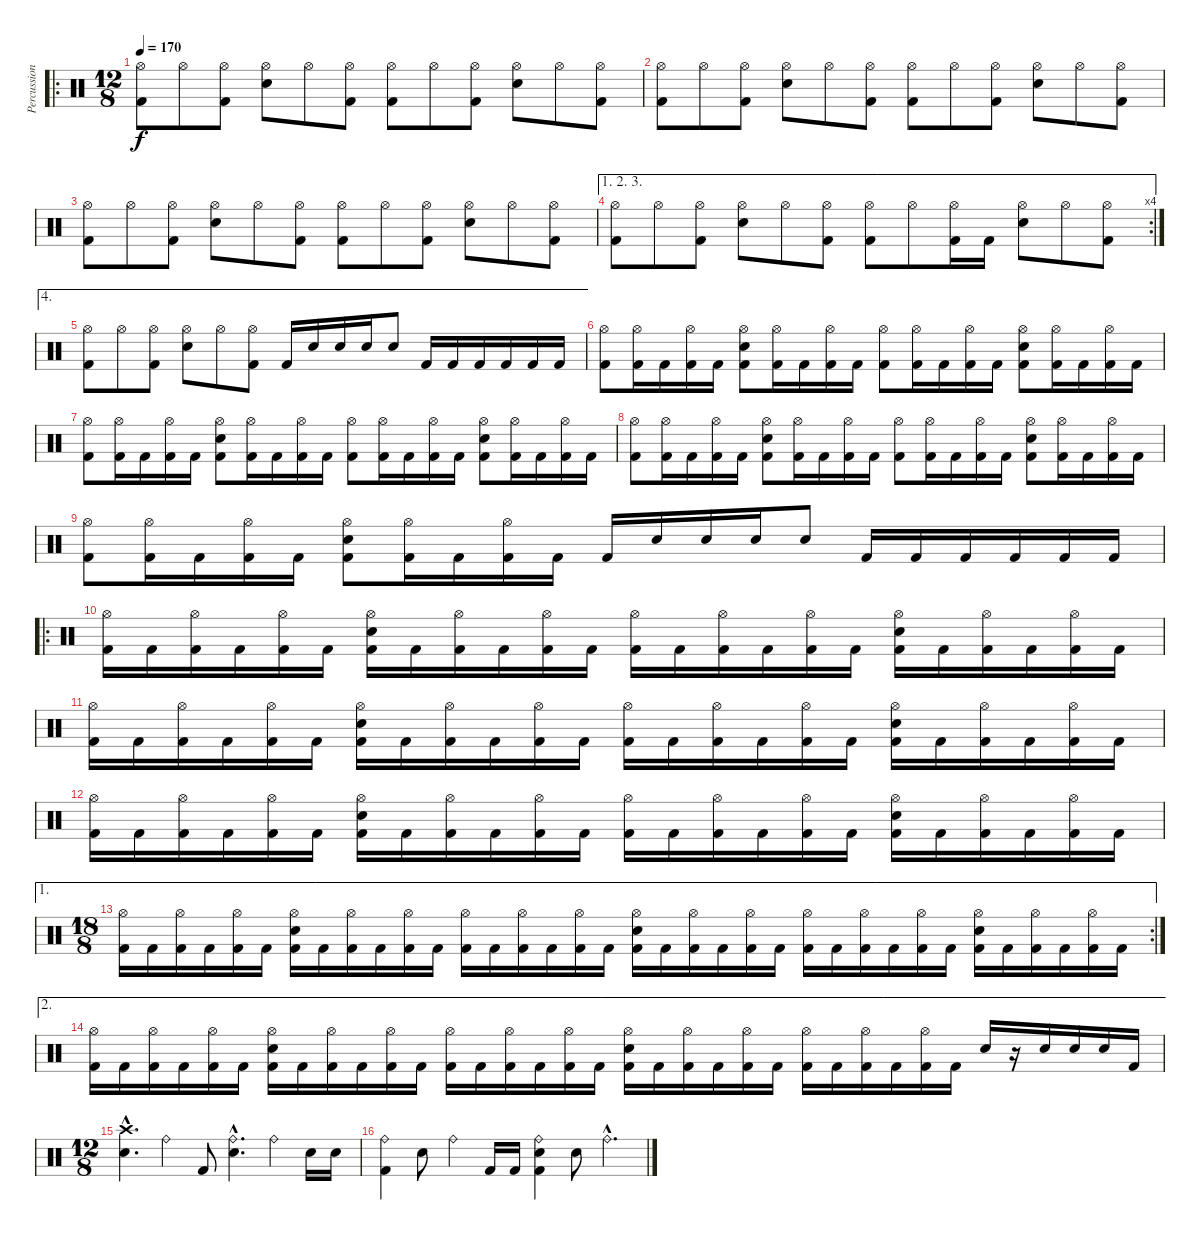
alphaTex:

\track ("Percussion" "Percussion") {instrument percussion}
\staff {score}
\articulation defaults
\ro
\ts (12 8)
\tempo 170
\clef neutral
\ks c
("Kick (hit) 2" "Hi-Hat (open)").8{dy f} "Hi-Hat (open)".8 ("Kick (hit) 2" "Hi-Hat (open)").8 ("Snare (hit) 2" "Hi-Hat (open)").8 "Hi-Hat (open)".8 ("Kick (hit) 2" "Hi-Hat (open)").8 ("Kick (hit) 2" "Hi-Hat (open)").8 "Hi-Hat (open)".8 ("Kick (hit) 2" "Hi-Hat (open)").8 ("Snare (hit) 2" "Hi-Hat (open)").8 "Hi-Hat (open)".8 ("Kick (hit) 2" "Hi-Hat (open)").8 |
("Kick (hit) 2" "Hi-Hat (open)").8 "Hi-Hat (open)".8 ("Kick (hit) 2" "Hi-Hat (open)").8 ("Snare (hit) 2" "Hi-Hat (open)").8 "Hi-Hat (open)".8 ("Kick (hit) 2" "Hi-Hat (open)").8 ("Kick (hit) 2" "Hi-Hat (open)").8 "Hi-Hat (open)".8 ("Kick (hit) 2" "Hi-Hat (open)").8 ("Snare (hit) 2" "Hi-Hat (open)").8 "Hi-Hat (open)".8 ("Kick (hit) 2" "Hi-Hat (open)").8 |
("Kick (hit) 2" "Hi-Hat (open)").8 "Hi-Hat (open)".8 ("Kick (hit) 2" "Hi-Hat (open)").8 ("Snare (hit) 2" "Hi-Hat (open)").8 "Hi-Hat (open)".8 ("Kick (hit) 2" "Hi-Hat (open)").8 ("Kick (hit) 2" "Hi-Hat (open)").8 "Hi-Hat (open)".8 ("Kick (hit) 2" "Hi-Hat (open)").8 ("Snare (hit) 2" "Hi-Hat (open)").8 "Hi-Hat (open)".8 ("Kick (hit) 2" "Hi-Hat (open)").8 |
\ae (1 2 3)
\rc 4
("Kick (hit) 2" "Hi-Hat (open)").8 "Hi-Hat (open)".8 ("Kick (hit) 2" "Hi-Hat (open)").8 ("Snare (hit) 2" "Hi-Hat (open)").8 "Hi-Hat (open)".8 ("Kick (hit) 2" "Hi-Hat (open)").8 ("Kick (hit) 2" "Hi-Hat (open)").8 "Hi-Hat (open)".8 ("Kick (hit) 2" "Hi-Hat (open)").16 "Kick (hit) 2".16 ("Snare (hit) 2" "Hi-Hat (open)").8 "Hi-Hat (open)".8 ("Kick (hit) 2" "Hi-Hat (open)").8 |
\ae 4
("Kick (hit) 2" "Hi-Hat (open)").8 "Hi-Hat (open)".8 ("Kick (hit) 2" "Hi-Hat (open)").8 ("Snare (hit) 2" "Hi-Hat (open)").8 "Hi-Hat (open)".8 ("Kick (hit) 2" "Hi-Hat (open)").8 "Kick (hit) 2".16 "Snare (hit) 2".16 "Snare (hit) 2".16 "Snare (hit) 2".16 "Snare (hit) 2".8 "Kick (hit) 2".16 "Kick (hit) 2".16 "Kick (hit) 2".16 "Kick (hit) 2".16 "Kick (hit) 2".16 "Kick (hit) 2".16 |
("Kick (hit) 2" "Hi-Hat (open)").8 ("Kick (hit) 2" "Hi-Hat (open)").16 "Kick (hit) 2".16 ("Kick (hit) 2" "Hi-Hat (open)").16 "Kick (hit) 2".16 ("Kick (hit) 2" "Snare (hit) 2" "Hi-Hat (open)").8 ("Kick (hit) 2" "Hi-Hat (open)").16 "Kick (hit) 2".16 ("Kick (hit) 2" "Hi-Hat (open)").16 "Kick (hit) 2".16 ("Kick (hit) 2" "Hi-Hat (open)").8 ("Kick (hit) 2" "Hi-Hat (open)").16 "Kick (hit) 2".16 ("Kick (hit) 2" "Hi-Hat (open)").16 "Kick (hit) 2".16 ("Kick (hit) 2" "Snare (hit) 2" "Hi-Hat (open)").8 ("Kick (hit) 2" "Hi-Hat (open)").16 "Kick (hit) 2".16 ("Kick (hit) 2" "Hi-Hat (open)").16 "Kick (hit) 2".16 |
("Kick (hit) 2" "Hi-Hat (open)").8 ("Kick (hit) 2" "Hi-Hat (open)").16 "Kick (hit) 2".16 ("Kick (hit) 2" "Hi-Hat (open)").16 "Kick (hit) 2".16 ("Kick (hit) 2" "Snare (hit) 2" "Hi-Hat (open)").8 ("Kick (hit) 2" "Hi-Hat (open)").16 "Kick (hit) 2".16 ("Kick (hit) 2" "Hi-Hat (open)").16 "Kick (hit) 2".16 ("Kick (hit) 2" "Hi-Hat (open)").8 ("Kick (hit) 2" "Hi-Hat (open)").16 "Kick (hit) 2".16 ("Kick (hit) 2" "Hi-Hat (open)").16 "Kick (hit) 2".16 ("Kick (hit) 2" "Snare (hit) 2" "Hi-Hat (open)").8 ("Kick (hit) 2" "Hi-Hat (open)").16 "Kick (hit) 2".16 ("Kick (hit) 2" "Hi-Hat (open)").16 "Kick (hit) 2".16 |
("Kick (hit) 2" "Hi-Hat (open)").8 ("Kick (hit) 2" "Hi-Hat (open)").16 "Kick (hit) 2".16 ("Kick (hit) 2" "Hi-Hat (open)").16 "Kick (hit) 2".16 ("Kick (hit) 2" "Snare (hit) 2" "Hi-Hat (open)").8 ("Kick (hit) 2" "Hi-Hat (open)").16 "Kick (hit) 2".16 ("Kick (hit) 2" "Hi-Hat (open)").16 "Kick (hit) 2".16 ("Kick (hit) 2" "Hi-Hat (open)").8 ("Kick (hit) 2" "Hi-Hat (open)").16 "Kick (hit) 2".16 ("Kick (hit) 2" "Hi-Hat (open)").16 "Kick (hit) 2".16 ("Kick (hit) 2" "Snare (hit) 2" "Hi-Hat (open)").8 ("Kick (hit) 2" "Hi-Hat (open)").16 "Kick (hit) 2".16 ("Kick (hit) 2" "Hi-Hat (open)").16 "Kick (hit) 2".16 |
("Kick (hit) 2" "Hi-Hat (open)").8 ("Kick (hit) 2" "Hi-Hat (open)").16 "Kick (hit) 2".16 ("Kick (hit) 2" "Hi-Hat (open)").16 "Kick (hit) 2".16 ("Kick (hit) 2" "Snare (hit) 2" "Hi-Hat (open)").8 ("Kick (hit) 2" "Hi-Hat (open)").16 "Kick (hit) 2".16 ("Kick (hit) 2" "Hi-Hat (open)").16 "Kick (hit) 2".16 "Kick (hit) 2".16 "Snare (hit) 2".16 "Snare (hit) 2".16 "Snare (hit) 2".16 "Snare (hit) 2".8 "Kick (hit) 2".16 "Kick (hit) 2".16 "Kick (hit) 2".16 "Kick (hit) 2".16 "Kick (hit) 2".16 "Kick (hit) 2".16 |
\ro
("Kick (hit) 2" "Hi-Hat (open)").16 "Kick (hit) 2".16 ("Kick (hit) 2" "Hi-Hat (open)").16 "Kick (hit) 2".16 ("Kick (hit) 2" "Hi-Hat (open)").16 "Kick (hit) 2".16 ("Kick (hit) 2" "Snare (hit) 2" "Hi-Hat (open)").16 "Kick (hit) 2".16 ("Kick (hit) 2" "Hi-Hat (open)").16 "Kick (hit) 2".16 ("Kick (hit) 2" "Hi-Hat (open)").16 "Kick (hit) 2".16 ("Kick (hit) 2" "Hi-Hat (open)").16 "Kick (hit) 2".16 ("Kick (hit) 2" "Hi-Hat (open)").16 "Kick (hit) 2".16 ("Kick (hit) 2" "Hi-Hat (open)").16 "Kick (hit) 2".16 ("Kick (hit) 2" "Snare (hit) 2" "Hi-Hat (open)").16 "Kick (hit) 2".16 ("Kick (hit) 2" "Hi-Hat (open)").16 "Kick (hit) 2".16 ("Kick (hit) 2" "Hi-Hat (open)").16 "Kick (hit) 2".16 |
("Kick (hit) 2" "Hi-Hat (open)").16 "Kick (hit) 2".16 ("Kick (hit) 2" "Hi-Hat (open)").16 "Kick (hit) 2".16 ("Kick (hit) 2" "Hi-Hat (open)").16 "Kick (hit) 2".16 ("Kick (hit) 2" "Snare (hit) 2" "Hi-Hat (open)").16 "Kick (hit) 2".16 ("Kick (hit) 2" "Hi-Hat (open)").16 "Kick (hit) 2".16 ("Kick (hit) 2" "Hi-Hat (open)").16 "Kick (hit) 2".16 ("Kick (hit) 2" "Hi-Hat (open)").16 "Kick (hit) 2".16 ("Kick (hit) 2" "Hi-Hat (open)").16 "Kick (hit) 2".16 ("Kick (hit) 2" "Hi-Hat (open)").16 "Kick (hit) 2".16 ("Kick (hit) 2" "Snare (hit) 2" "Hi-Hat (open)").16 "Kick (hit) 2".16 ("Kick (hit) 2" "Hi-Hat (open)").16 "Kick (hit) 2".16 ("Kick (hit) 2" "Hi-Hat (open)").16 "Kick (hit) 2".16 |
("Kick (hit) 2" "Hi-Hat (open)").16 "Kick (hit) 2".16 ("Kick (hit) 2" "Hi-Hat (open)").16 "Kick (hit) 2".16 ("Kick (hit) 2" "Hi-Hat (open)").16 "Kick (hit) 2".16 ("Kick (hit) 2" "Snare (hit) 2" "Hi-Hat (open)").16 "Kick (hit) 2".16 ("Kick (hit) 2" "Hi-Hat (open)").16 "Kick (hit) 2".16 ("Kick (hit) 2" "Hi-Hat (open)").16 "Kick (hit) 2".16 ("Kick (hit) 2" "Hi-Hat (open)").16 "Kick (hit) 2".16 ("Kick (hit) 2" "Hi-Hat (open)").16 "Kick (hit) 2".16 ("Kick (hit) 2" "Hi-Hat (open)").16 "Kick (hit) 2".16 ("Kick (hit) 2" "Snare (hit) 2" "Hi-Hat (open)").16 "Kick (hit) 2".16 ("Kick (hit) 2" "Hi-Hat (open)").16 "Kick (hit) 2".16 ("Kick (hit) 2" "Hi-Hat (open)").16 "Kick (hit) 2".16 |
\ae 1
\rc 2
\ts (18 8)
("Kick (hit) 2" "Hi-Hat (open)").16 "Kick (hit) 2".16 ("Kick (hit) 2" "Hi-Hat (open)").16 "Kick (hit) 2".16 ("Kick (hit) 2" "Hi-Hat (open)").16 "Kick (hit) 2".16 ("Kick (hit) 2" "Snare (hit) 2" "Hi-Hat (open)").16 "Kick (hit) 2".16 ("Kick (hit) 2" "Hi-Hat (open)").16 "Kick (hit) 2".16 ("Kick (hit) 2" "Hi-Hat (open)").16 "Kick (hit) 2".16 ("Kick (hit) 2" "Hi-Hat (open)").16 "Kick (hit) 2".16 ("Kick (hit) 2" "Hi-Hat (open)").16 "Kick (hit) 2".16 ("Kick (hit) 2" "Hi-Hat (open)").16 "Kick (hit) 2".16 ("Kick (hit) 2" "Snare (hit) 2" "Hi-Hat (open)").16 "Kick (hit) 2".16 ("Kick (hit) 2" "Hi-Hat (open)").16 "Kick (hit) 2".16 ("Kick (hit) 2" "Hi-Hat (open)").16 "Kick (hit) 2".16 ("Kick (hit) 2" "Hi-Hat (open)").16 "Kick (hit) 2".16 ("Kick (hit) 2" "Hi-Hat (open)").16 "Kick (hit) 2".16 ("Kick (hit) 2" "Hi-Hat (open)").16 "Kick (hit) 2".16 ("Kick (hit) 2" "Snare (hit) 2" "Hi-Hat (open)").16 "Kick (hit) 2".16 ("Kick (hit) 2" "Hi-Hat (open)").16 "Kick (hit) 2".16 ("Kick (hit) 2" "Hi-Hat (open)").16 "Kick (hit) 2".16 |
\ae 2
("Kick (hit) 2" "Hi-Hat (open)").16 "Kick (hit) 2".16 ("Kick (hit) 2" "Hi-Hat (open)").16 "Kick (hit) 2".16 ("Kick (hit) 2" "Hi-Hat (open)").16 "Kick (hit) 2".16 ("Kick (hit) 2" "Snare (hit) 2" "Hi-Hat (open)").16 "Kick (hit) 2".16 ("Kick (hit) 2" "Hi-Hat (open)").16 "Kick (hit) 2".16 ("Kick (hit) 2" "Hi-Hat (open)").16 "Kick (hit) 2".16 ("Kick (hit) 2" "Hi-Hat (open)").16 "Kick (hit) 2".16 ("Kick (hit) 2" "Hi-Hat (open)").16 "Kick (hit) 2".16 ("Kick (hit) 2" "Hi-Hat (open)").16 "Kick (hit) 2".16 ("Kick (hit) 2" "Snare (hit) 2" "Hi-Hat (open)").16 "Kick (hit) 2".16 ("Kick (hit) 2" "Hi-Hat (open)").16 "Kick (hit) 2".16 ("Kick (hit) 2" "Hi-Hat (open)").16 "Kick (hit) 2".16 ("Kick (hit) 2" "Hi-Hat (open)").16 "Kick (hit) 2".16 ("Kick (hit) 2" "Hi-Hat (open)").16 "Kick (hit) 2".16 ("Kick (hit) 2" "Hi-Hat (open)").16 "Kick (hit) 2".16 "Snare (hit) 2".16 r.16 "Snare (hit) 2".16 "Snare (hit) 2".16 "Snare (hit) 2".16 "Kick (hit) 2".16 |
\ts (12 8)
("Snare (hit) 2"{hac} "Crash high (hit)"{hac}).4{d} "Ride (bell)".4 "Kick (hit) 2".8 ("Snare (hit) 2"{hac} "Ride (bell)"{hac}).4{d} "Ride (bell)".4 "Snare (hit) 2".16 "Snare (hit) 2".16 |
("Kick (hit) 2" "Ride (bell)").4 "Snare (hit) 2".8 "Ride (bell)".4 "Kick (hit) 2".16 "Kick (hit) 2".16 ("Kick (hit) 2" "Snare (hit) 2" "Ride (bell)").4 "Snare (hit) 2".8 "Ride (bell)"{hac}.4{d}
